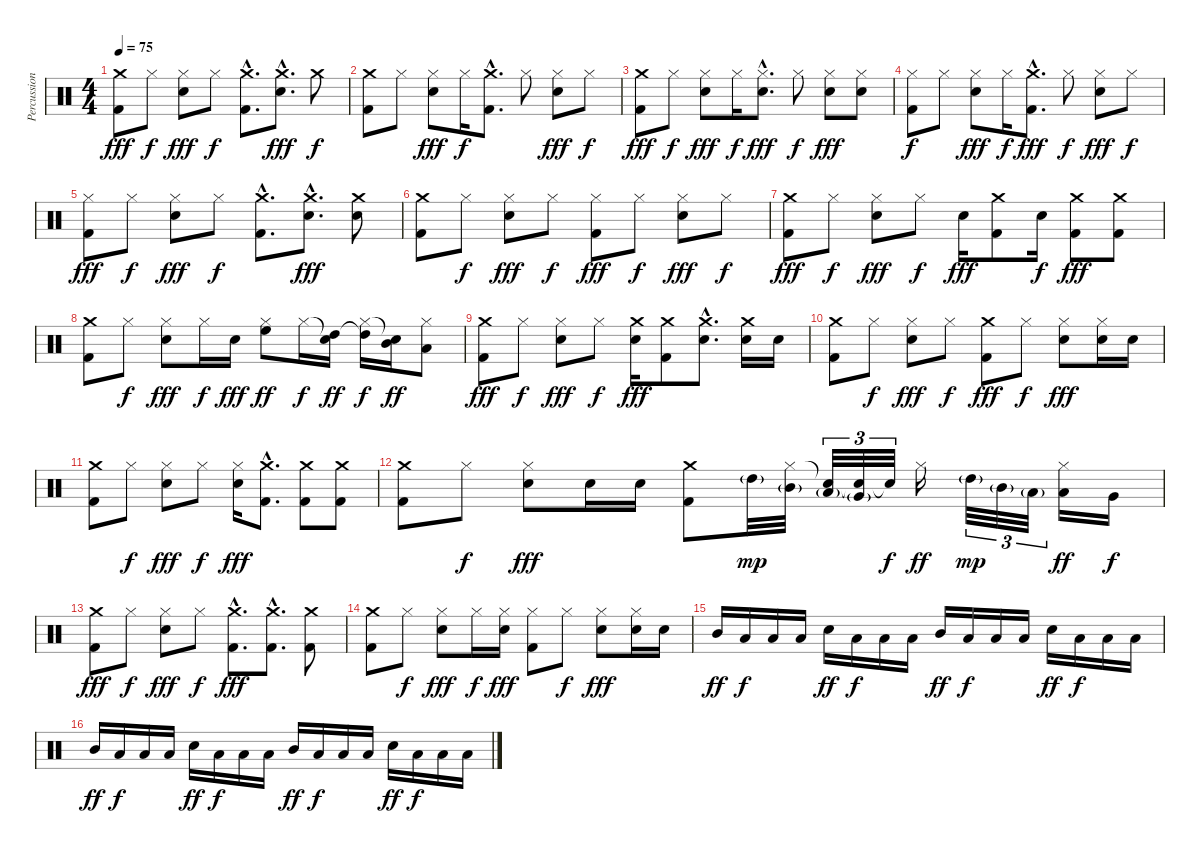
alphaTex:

\track ("Percussion" "Percussion") {instrument percussion}
\staff {score}
\articulation defaults
\ts (4 4)
\tempo 75
\clef neutral
\ks c
("Crash medium (hit)" "Kick (hit) 2").8{dy fff} "Hi-Hat (closed)".8{dy f} ("Hi-Hat (closed)" "Electric Snare (hit)").8{dy fff} "Hi-Hat (closed)".8{dy f} ("Crash medium (hit)"{hac} "Kick (hit) 2"{hac}).8{d} ("Crash medium (hit)"{hac} "Electric Snare (hit)"{hac}).8{d dy fff} "Crash medium (hit)".8{dy f} |
("Crash medium (hit)" "Kick (hit) 2").8 "Hi-Hat (closed)".8 ("Hi-Hat (closed)" "Electric Snare (hit)").8{dy fff} "Hi-Hat (closed)".16{dy f} ("Crash medium (hit)"{hac} "Kick (hit) 2"{hac}).8{d} "Hi-Hat (closed)".8 ("Hi-Hat (closed)" "Electric Snare (hit)").8{dy fff} "Hi-Hat (closed)".8{dy f} |
("Crash medium (hit)" "Kick (hit) 2").8{dy fff} "Hi-Hat (closed)".8{dy f} ("Hi-Hat (closed)" "Electric Snare (hit)").8{dy fff} "Hi-Hat (closed)".16{dy f} ("Hi-Hat (closed)"{hac} "Electric Snare (hit)"{hac}).8{d dy fff} "Hi-Hat (closed)".8{dy f} ("Hi-Hat (closed)" "Electric Snare (hit)").8{dy fff} ("Hi-Hat (closed)" "Electric Snare (hit)").8 |
("Hi-Hat (closed)" "Kick (hit) 2").8{dy f} "Hi-Hat (closed)".8 ("Hi-Hat (closed)" "Electric Snare (hit)").8{dy fff} "Hi-Hat (closed)".16{dy f} ("Crash medium (hit)"{hac} "Kick (hit) 2"{hac}).8{d dy fff} "Hi-Hat (closed)".8{dy f} ("Hi-Hat (closed)" "Electric Snare (hit)").8{dy fff} "Hi-Hat (closed)".8{dy f} |
("Hi-Hat (closed)" "Kick (hit) 2").8{dy fff} "Hi-Hat (closed)".8{dy f} ("Hi-Hat (closed)" "Electric Snare (hit)").8{dy fff} "Hi-Hat (closed)".8{dy f} ("Crash medium (hit)"{hac} "Kick (hit) 2"{hac}).8{d} ("Crash medium (hit)"{hac} "Electric Snare (hit)"{hac}).8{d dy fff} ("Crash medium (hit)" "Electric Snare (hit)").8 |
("Crash medium (hit)" "Kick (hit) 2").8 "Hi-Hat (closed)".8{dy f} ("Hi-Hat (closed)" "Electric Snare (hit)").8{dy fff} "Hi-Hat (closed)".8{dy f} ("Hi-Hat (closed)" "Kick (hit) 2").8{dy fff} "Hi-Hat (closed)".8{dy f} ("Hi-Hat (closed)" "Electric Snare (hit)").8{dy fff} "Hi-Hat (closed)".8{dy f} |
("Crash medium (hit)" "Kick (hit) 2").8{dy fff} "Hi-Hat (closed)".8{dy f} ("Hi-Hat (closed)" "Electric Snare (hit)").8{dy fff} "Hi-Hat (closed)".8{dy f} "Electric Snare (hit)".16{dy fff} ("Crash medium (hit)" "Kick (hit) 2").8 "Electric Snare (hit)".16{dy f} ("Crash medium (hit)" "Kick (hit) 2").8{dy fff} ("Crash medium (hit)" "Kick (hit) 2").8 |
("Crash medium (hit)" "Kick (hit) 2").8 "Hi-Hat (closed)".8{dy f} ("Hi-Hat (closed)" "Electric Snare (hit)").8{dy fff} "Hi-Hat (closed)".16{dy f} "Electric Snare (hit)".16{dy fff} ("Hi-Hat (closed)" "High Floor Tom (hit)").8{dy ff} "Hi-Hat (closed)".16{dy f} ("Snare (hit)"{t} "High Tom (hit)").16{dy ff} ("Hi-Hat (closed)" "High Tom (hit)"{t}).16{dy f} ("Snare (hit)"{t} "Mid Tom (hit)").16{dy ff} ("Hi-Hat (closed)" "Low Tom (hit)").8 |
("Crash medium (hit)" "Kick (hit) 2").8{dy fff} "Hi-Hat (closed)".8{dy f} ("Hi-Hat (closed)" "Electric Snare (hit)").8{dy fff} "Hi-Hat (closed)".8{dy f} ("Crash medium (hit)" "Electric Snare (hit)").16{dy fff} ("Crash medium (hit)" "Kick (hit) 2").8 ("Crash medium (hit)"{hac} "Electric Snare (hit)"{hac}).8{d} ("Crash medium (hit)" "Electric Snare (hit)").16 "Electric Snare (hit)".16 |
("Crash medium (hit)" "Kick (hit) 2").8 "Hi-Hat (closed)".8{dy f} ("Hi-Hat (closed)" "Electric Snare (hit)").8{dy fff} "Hi-Hat (closed)".8{dy f} ("Crash medium (hit)" "Kick (hit) 2").8{dy fff} "Hi-Hat (closed)".8{dy f} ("Hi-Hat (closed)" "Electric Snare (hit)").8{dy fff} ("Hi-Hat (closed)" "Electric Snare (hit)").16 "Electric Snare (hit)".16 |
("Crash medium (hit)" "Kick (hit) 2").8 "Hi-Hat (closed)".8{dy f} ("Hi-Hat (closed)" "Electric Snare (hit)").8{dy fff} "Hi-Hat (closed)".8{dy f} ("Hi-Hat (closed)" "Electric Snare (hit)").16{dy fff} ("Crash medium (hit)"{hac} "Kick (hit) 2"{hac}).8{d} ("Crash medium (hit)" "Kick (hit) 2").8 ("Crash medium (hit)" "Kick (hit) 2").8 |
("Crash medium (hit)" "Kick (hit) 2").8 "Hi-Hat (closed)".8{dy f} ("Hi-Hat (closed)" "Electric Snare (hit)").8{dy fff} "Electric Snare (hit)".16 "Electric Snare (hit)".16 ("Crash medium (hit)" "Kick (hit) 2").8 "High Tom (hit)"{g}.32{dy mp} ("Hi-Hat (closed)" "Mid Tom (hit)"{g}).32 ("Snare (hit)"{t} "Low Tom (hit)"{g}).32{tu (3 2)} ("Snare (hit)"{t} "Very Low Tom (hit)"{g}).32{tu (3 2)} "Snare (hit)"{t}.32{tu (3 2) dy f} "Hi-Hat (closed)".16{dy ff} "High Tom (hit)"{g}.32{tu (3 2) dy mp} "Mid Tom (hit)"{g}.32{tu (3 2)} "Low Tom (hit)"{g}.32{tu (3 2)} ("Hi-Hat (closed)" "Low Tom (hit)").16{dy ff} "Very Low Tom (hit)".16{dy f} |
("Crash medium (hit)" "Kick (hit) 2").8{dy fff} "Hi-Hat (closed)".8{dy f} ("Hi-Hat (closed)" "Electric Snare (hit)").8{dy fff} "Hi-Hat (closed)".8{dy f} ("Crash medium (hit)"{hac} "Kick (hit) 2"{hac}).8{d dy fff} ("Crash medium (hit)"{hac} "Kick (hit) 2"{hac}).8{d} ("Crash medium (hit)" "Kick (hit) 2").8 |
("Crash medium (hit)" "Kick (hit) 2").8 "Hi-Hat (closed)".8{dy f} ("Hi-Hat (closed)" "Electric Snare (hit)").8{dy fff} "Hi-Hat (closed)".16{dy f} ("Hi-Hat (closed)" "Electric Snare (hit)").16{dy fff} ("Hi-Hat (closed)" "Kick (hit) 2").8 "Hi-Hat (closed)".8{dy f} ("Hi-Hat (closed)" "Electric Snare (hit)").8{dy fff} ("Hi-Hat (closed)" "Electric Snare (hit)").16 "Electric Snare (hit)".16 |
"Mid Tom (hit)".16{dy ff} "Low Tom (hit)".16{dy f} "Low Tom (hit)".16 "Low Tom (hit)".16 "Electric Snare (hit)".16{dy ff} "Low Tom (hit)".16{dy f} "Low Tom (hit)".16 "Low Tom (hit)".16 "Mid Tom (hit)".16{dy ff} "Low Tom (hit)".16{dy f} "Low Tom (hit)".16 "Low Tom (hit)".16 "Electric Snare (hit)".16{dy ff} "Low Tom (hit)".16{dy f} "Low Tom (hit)".16 "Low Tom (hit)".16 |
"Mid Tom (hit)".16{dy ff} "Low Tom (hit)".16{dy f} "Low Tom (hit)".16 "Low Tom (hit)".16 "Electric Snare (hit)".16{dy ff} "Low Tom (hit)".16{dy f} "Low Tom (hit)".16 "Low Tom (hit)".16 "Mid Tom (hit)".16{dy ff} "Low Tom (hit)".16{dy f} "Low Tom (hit)".16 "Low Tom (hit)".16 "Electric Snare (hit)".16{dy ff} "Low Tom (hit)".16{dy f} "Low Tom (hit)".16 "Low Tom (hit)".16
